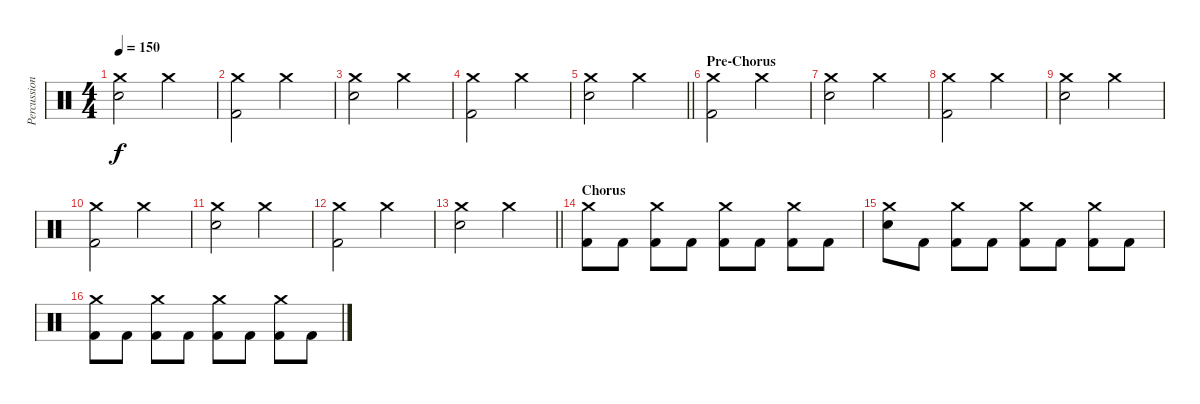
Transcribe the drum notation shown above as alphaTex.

\track ("Percussion" "Percussion") {instrument percussion}
\staff {score}
\articulation defaults
\ts (4 4)
\tempo 150
\clef neutral
\ks c
("Crash medium (hit)" "Electric Snare (hit)").2{dy f} "Crash medium (hit)".2 |
("Crash medium (hit)" "Kick (hit) 2").2 "Crash medium (hit)".2 |
("Crash medium (hit)" "Electric Snare (hit)").2 "Crash medium (hit)".2 |
("Crash medium (hit)" "Kick (hit) 2").2 "Crash medium (hit)".2 |
\barLineRight lightlight
("Crash medium (hit)" "Electric Snare (hit)").2 "Crash medium (hit)".2 |
\section ("" "Pre-Chorus")
("Crash medium (hit)" "Kick (hit) 2").2 "Crash medium (hit)".2 |
("Crash medium (hit)" "Electric Snare (hit)").2 "Crash medium (hit)".2 |
("Crash medium (hit)" "Kick (hit) 2").2 "Crash medium (hit)".2 |
("Crash medium (hit)" "Electric Snare (hit)").2 "Crash medium (hit)".2 |
("Crash medium (hit)" "Kick (hit) 2").2 "Crash medium (hit)".2 |
("Crash medium (hit)" "Electric Snare (hit)").2 "Crash medium (hit)".2 |
("Crash medium (hit)" "Kick (hit) 2").2 "Crash medium (hit)".2 |
\barLineRight lightlight
("Crash medium (hit)" "Electric Snare (hit)").2 "Crash medium (hit)".2 |
\section ("" "Chorus")
("Crash medium (hit)" "Kick (hit) 2").8 "Kick (hit) 2".8 ("Crash medium (hit)" "Kick (hit) 2").8 "Kick (hit) 2".8 ("Crash medium (hit)" "Kick (hit) 2").8 "Kick (hit) 2".8 ("Crash medium (hit)" "Kick (hit) 2").8 "Kick (hit) 2".8 |
("Crash medium (hit)" "Electric Snare (hit)").8 "Kick (hit) 2".8 ("Crash medium (hit)" "Kick (hit) 2").8 "Kick (hit) 2".8 ("Crash medium (hit)" "Kick (hit) 2").8 "Kick (hit) 2".8 ("Crash medium (hit)" "Kick (hit) 2").8 "Kick (hit) 2".8 |
("Crash medium (hit)" "Kick (hit) 2").8 "Kick (hit) 2".8 ("Crash medium (hit)" "Kick (hit) 2").8 "Kick (hit) 2".8 ("Crash medium (hit)" "Kick (hit) 2").8 "Kick (hit) 2".8 ("Crash medium (hit)" "Kick (hit) 2").8 "Kick (hit) 2".8
